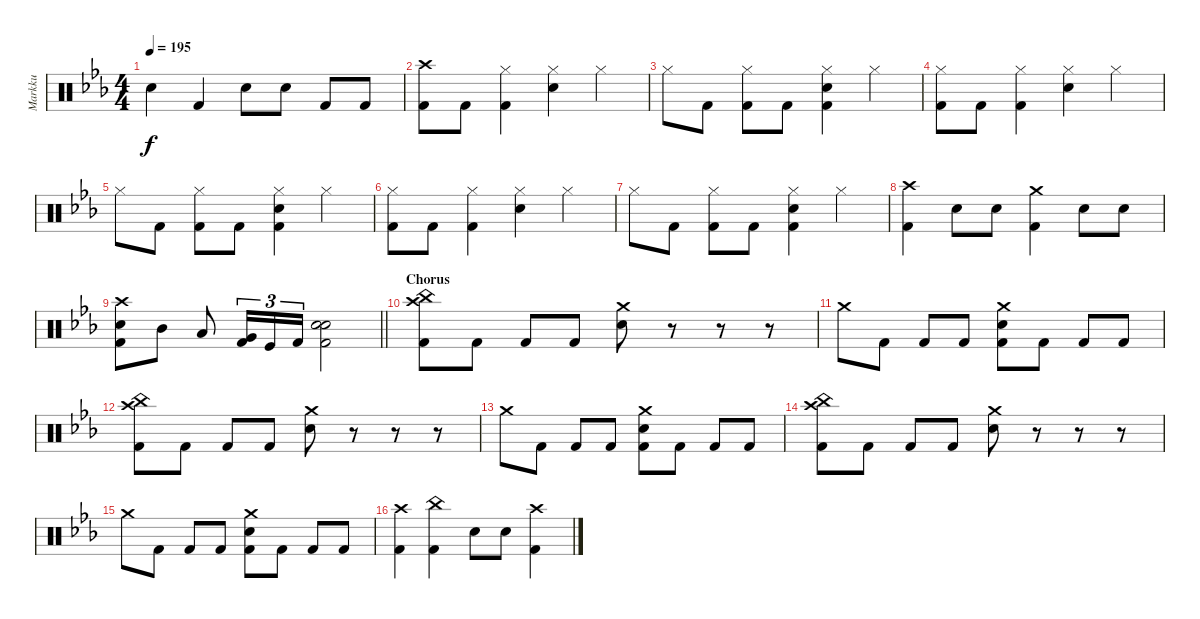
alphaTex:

\track ("Markku" "Markku") {instrument percussion}
\staff {score}
\articulation defaults
\ts (4 4)
\tempo 195
\clef neutral
\ks cminor "Snare (hit) 2".4{dy f} "Kick (hit) 2".4 "Snare (hit) 2".8 "Snare (hit) 2".8 "Kick (hit) 2".8 "Kick (hit) 2".8
|
("Kick (hit) 2" "Crash high (hit)").8 "Kick (hit) 2".8 ("Kick (hit) 2" "Hi-Hat (closed)").4 ("Snare (hit) 2" "Hi-Hat (closed)").4 "Hi-Hat (closed)".4 |
"Hi-Hat (closed)".8 "Kick (hit) 2".8 ("Kick (hit) 2" "Hi-Hat (closed)").8 "Kick (hit) 2".8 ("Kick (hit) 2" "Snare (hit) 2" "Hi-Hat (closed)").4 "Hi-Hat (closed)".4 |
("Kick (hit) 2" "Hi-Hat (closed)").8 "Kick (hit) 2".8 ("Kick (hit) 2" "Hi-Hat (closed)").4 ("Snare (hit) 2" "Hi-Hat (closed)").4 "Hi-Hat (closed)".4 |
"Hi-Hat (closed)".8 "Kick (hit) 2".8 ("Kick (hit) 2" "Hi-Hat (closed)").8 "Kick (hit) 2".8 ("Kick (hit) 2" "Snare (hit) 2" "Hi-Hat (closed)").4 "Hi-Hat (closed)".4 |
("Kick (hit) 2" "Hi-Hat (closed)").8 "Kick (hit) 2".8 ("Kick (hit) 2" "Hi-Hat (closed)").4 ("Snare (hit) 2" "Hi-Hat (closed)").4 "Hi-Hat (closed)".4 |
"Hi-Hat (closed)".8 "Kick (hit) 2".8 ("Kick (hit) 2" "Hi-Hat (closed)").8 "Kick (hit) 2".8 ("Kick (hit) 2" "Snare (hit) 2" "Hi-Hat (closed)").4 "Hi-Hat (closed)".4 |
("Crash high (hit)" "Kick (hit) 2").4 "Snare (hit) 2".8 "Snare (hit) 2".8 ("Crash medium (hit)" "Kick (hit) 2").4 "Snare (hit) 2".8 "Snare (hit) 2".8 |
\barLineRight lightlight
("Kick (hit) 2" "Crash high (hit)" "Snare (hit) 2").8 "Mid Tom (hit)".8 "Low Tom (hit)".8 ("Very Low Tom (hit)" "Kick (hit) 2").16{tu (3 2)} "Kick (hit)".16{tu (3 2)} "Kick (hit) 2".16{tu (3 2)} ("Electric Snare (hit)" "Snare (hit) 2" "Kick (hit) 2").2 |
\section ("" "Chorus")
("Kick (hit) 2" "Crash high (hit)" "China (hit)").8 "Kick (hit) 2".8 "Kick (hit) 2".8 "Kick (hit) 2".8 ("Snare (hit) 2" "Crash medium (hit)").8 r.8 r.8 r.8 |
"Crash medium (hit)".8 "Kick (hit) 2".8 "Kick (hit) 2".8 "Kick (hit) 2".8 ("Kick (hit) 2" "Crash medium (hit)" "Snare (hit) 2").8 "Kick (hit) 2".8 "Kick (hit) 2".8 "Kick (hit) 2".8 |
("Kick (hit) 2" "Crash high (hit)" "China (hit)").8 "Kick (hit) 2".8 "Kick (hit) 2".8 "Kick (hit) 2".8 ("Snare (hit) 2" "Crash medium (hit)").8 r.8 r.8 r.8 |
"Crash medium (hit)".8 "Kick (hit) 2".8 "Kick (hit) 2".8 "Kick (hit) 2".8 ("Kick (hit) 2" "Crash medium (hit)" "Snare (hit) 2").8 "Kick (hit) 2".8 "Kick (hit) 2".8 "Kick (hit) 2".8 |
("Kick (hit) 2" "Crash high (hit)" "China (hit)").8 "Kick (hit) 2".8 "Kick (hit) 2".8 "Kick (hit) 2".8 ("Snare (hit) 2" "Crash medium (hit)").8 r.8 r.8 r.8 |
"Crash medium (hit)".8 "Kick (hit) 2".8 "Kick (hit) 2".8 "Kick (hit) 2".8 ("Kick (hit) 2" "Crash medium (hit)" "Snare (hit) 2").8 "Kick (hit) 2".8 "Kick (hit) 2".8 "Kick (hit) 2".8 |
("Kick (hit) 2" "Crash high (hit)").4 ("Kick (hit) 2" "China (hit)").4 "Snare (hit) 2".8 "Snare (hit) 2".8 ("Kick (hit) 2" "Crash high (hit)").4
